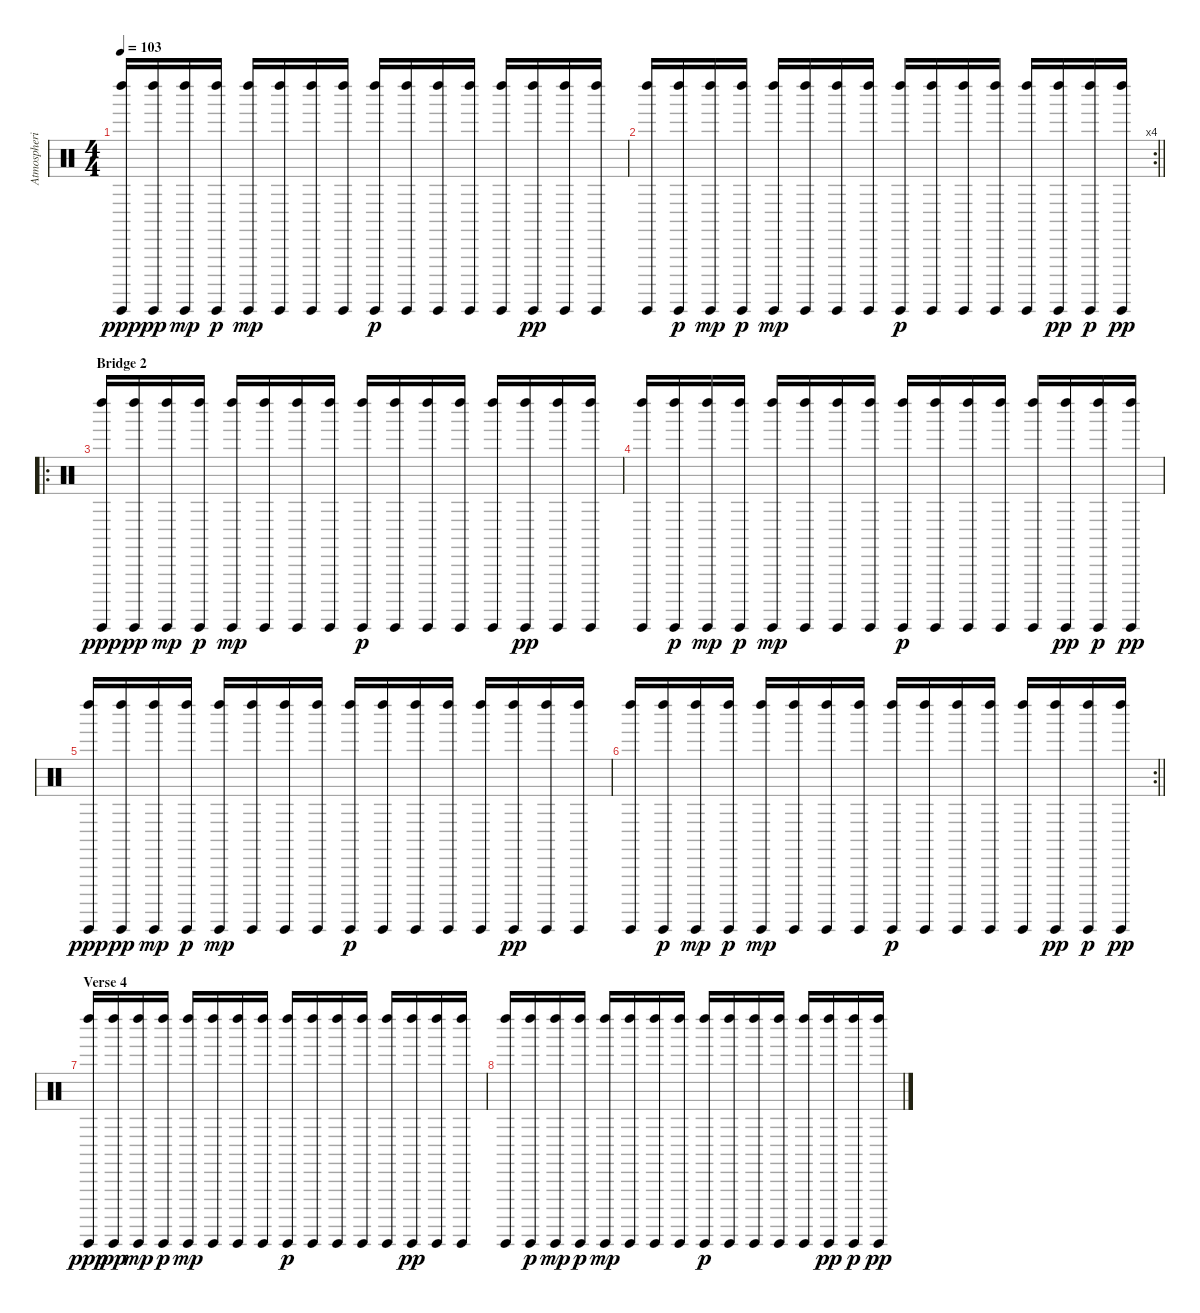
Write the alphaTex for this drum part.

\track ("Atmospheric Percussion" "Atmospheri") {instrument percussion}
\staff {score}
\articulation defaults
\ts (4 4)
\tempo 103
\clef neutral
\ks c
("Guiro (hit)" "Left Maraca (hit)").16{dy ppp} ("Guiro (hit)" "Left Maraca (hit)").16{dy pp} ("Guiro (hit)" "Left Maraca (hit)").16{dy mp} ("Guiro (hit)" "Left Maraca (hit)").16{dy p} ("Guiro (hit)" "Left Maraca (hit)").16{dy mp} ("Guiro (hit)" "Left Maraca (hit)").16 ("Guiro (hit)" "Left Maraca (hit)").16 ("Guiro (hit)" "Left Maraca (hit)").16 ("Guiro (hit)" "Left Maraca (hit)").16{dy p} ("Guiro (hit)" "Left Maraca (hit)").16 ("Guiro (hit)" "Left Maraca (hit)").16 ("Guiro (hit)" "Left Maraca (hit)").16 ("Guiro (hit)" "Left Maraca (hit)").16 ("Guiro (hit)" "Left Maraca (hit)").16{dy pp} ("Guiro (hit)" "Left Maraca (hit)").16 ("Guiro (hit)" "Left Maraca (hit)").16 |
\rc 4
\barLineRight lightlight
("Guiro (hit)" "Left Maraca (hit)").16 ("Guiro (hit)" "Left Maraca (hit)").16{dy p} ("Guiro (hit)" "Left Maraca (hit)").16{dy mp} ("Guiro (hit)" "Left Maraca (hit)").16{dy p} ("Guiro (hit)" "Left Maraca (hit)").16{dy mp} ("Guiro (hit)" "Left Maraca (hit)").16 ("Guiro (hit)" "Left Maraca (hit)").16 ("Guiro (hit)" "Left Maraca (hit)").16 ("Guiro (hit)" "Left Maraca (hit)").16{dy p} ("Guiro (hit)" "Left Maraca (hit)").16 ("Guiro (hit)" "Left Maraca (hit)").16 ("Guiro (hit)" "Left Maraca (hit)").16 ("Guiro (hit)" "Left Maraca (hit)").16 ("Guiro (hit)" "Left Maraca (hit)").16{dy pp} ("Guiro (hit)" "Left Maraca (hit)").16{dy p} ("Guiro (hit)" "Left Maraca (hit)").16{dy pp} |
\ro
\section ("" "Bridge 2")
("Guiro (hit)" "Left Maraca (hit)").16{dy ppp} ("Guiro (hit)" "Left Maraca (hit)").16{dy pp} ("Guiro (hit)" "Left Maraca (hit)").16{dy mp} ("Guiro (hit)" "Left Maraca (hit)").16{dy p} ("Guiro (hit)" "Left Maraca (hit)").16{dy mp} ("Guiro (hit)" "Left Maraca (hit)").16 ("Guiro (hit)" "Left Maraca (hit)").16 ("Guiro (hit)" "Left Maraca (hit)").16 ("Guiro (hit)" "Left Maraca (hit)").16{dy p} ("Guiro (hit)" "Left Maraca (hit)").16 ("Guiro (hit)" "Left Maraca (hit)").16 ("Guiro (hit)" "Left Maraca (hit)").16 ("Guiro (hit)" "Left Maraca (hit)").16 ("Guiro (hit)" "Left Maraca (hit)").16{dy pp} ("Guiro (hit)" "Left Maraca (hit)").16 ("Guiro (hit)" "Left Maraca (hit)").16 |
("Guiro (hit)" "Left Maraca (hit)").16 ("Guiro (hit)" "Left Maraca (hit)").16{dy p} ("Guiro (hit)" "Left Maraca (hit)").16{dy mp} ("Guiro (hit)" "Left Maraca (hit)").16{dy p} ("Guiro (hit)" "Left Maraca (hit)").16{dy mp} ("Guiro (hit)" "Left Maraca (hit)").16 ("Guiro (hit)" "Left Maraca (hit)").16 ("Guiro (hit)" "Left Maraca (hit)").16 ("Guiro (hit)" "Left Maraca (hit)").16{dy p} ("Guiro (hit)" "Left Maraca (hit)").16 ("Guiro (hit)" "Left Maraca (hit)").16 ("Guiro (hit)" "Left Maraca (hit)").16 ("Guiro (hit)" "Left Maraca (hit)").16 ("Guiro (hit)" "Left Maraca (hit)").16{dy pp} ("Guiro (hit)" "Left Maraca (hit)").16{dy p} ("Guiro (hit)" "Left Maraca (hit)").16{dy pp} |
("Guiro (hit)" "Left Maraca (hit)").16{dy ppp} ("Guiro (hit)" "Left Maraca (hit)").16{dy pp} ("Guiro (hit)" "Left Maraca (hit)").16{dy mp} ("Guiro (hit)" "Left Maraca (hit)").16{dy p} ("Guiro (hit)" "Left Maraca (hit)").16{dy mp} ("Guiro (hit)" "Left Maraca (hit)").16 ("Guiro (hit)" "Left Maraca (hit)").16 ("Guiro (hit)" "Left Maraca (hit)").16 ("Guiro (hit)" "Left Maraca (hit)").16{dy p} ("Guiro (hit)" "Left Maraca (hit)").16 ("Guiro (hit)" "Left Maraca (hit)").16 ("Guiro (hit)" "Left Maraca (hit)").16 ("Guiro (hit)" "Left Maraca (hit)").16 ("Guiro (hit)" "Left Maraca (hit)").16{dy pp} ("Guiro (hit)" "Left Maraca (hit)").16 ("Guiro (hit)" "Left Maraca (hit)").16 |
\rc 2
\barLineRight lightlight
("Guiro (hit)" "Left Maraca (hit)").16 ("Guiro (hit)" "Left Maraca (hit)").16{dy p} ("Guiro (hit)" "Left Maraca (hit)").16{dy mp} ("Guiro (hit)" "Left Maraca (hit)").16{dy p} ("Guiro (hit)" "Left Maraca (hit)").16{dy mp} ("Guiro (hit)" "Left Maraca (hit)").16 ("Guiro (hit)" "Left Maraca (hit)").16 ("Guiro (hit)" "Left Maraca (hit)").16 ("Guiro (hit)" "Left Maraca (hit)").16{dy p} ("Guiro (hit)" "Left Maraca (hit)").16 ("Guiro (hit)" "Left Maraca (hit)").16 ("Guiro (hit)" "Left Maraca (hit)").16 ("Guiro (hit)" "Left Maraca (hit)").16 ("Guiro (hit)" "Left Maraca (hit)").16{dy pp} ("Guiro (hit)" "Left Maraca (hit)").16{dy p} ("Guiro (hit)" "Left Maraca (hit)").16{dy pp} |
\section ("" "Verse 4")
("Guiro (hit)" "Left Maraca (hit)").16{dy ppp} ("Guiro (hit)" "Left Maraca (hit)").16{dy pp} ("Guiro (hit)" "Left Maraca (hit)").16{dy mp} ("Guiro (hit)" "Left Maraca (hit)").16{dy p} ("Guiro (hit)" "Left Maraca (hit)").16{dy mp} ("Guiro (hit)" "Left Maraca (hit)").16 ("Guiro (hit)" "Left Maraca (hit)").16 ("Guiro (hit)" "Left Maraca (hit)").16 ("Guiro (hit)" "Left Maraca (hit)").16{dy p} ("Guiro (hit)" "Left Maraca (hit)").16 ("Guiro (hit)" "Left Maraca (hit)").16 ("Guiro (hit)" "Left Maraca (hit)").16 ("Guiro (hit)" "Left Maraca (hit)").16 ("Guiro (hit)" "Left Maraca (hit)").16{dy pp} ("Guiro (hit)" "Left Maraca (hit)").16 ("Guiro (hit)" "Left Maraca (hit)").16 |
("Guiro (hit)" "Left Maraca (hit)").16 ("Guiro (hit)" "Left Maraca (hit)").16{dy p} ("Guiro (hit)" "Left Maraca (hit)").16{dy mp} ("Guiro (hit)" "Left Maraca (hit)").16{dy p} ("Guiro (hit)" "Left Maraca (hit)").16{dy mp} ("Guiro (hit)" "Left Maraca (hit)").16 ("Guiro (hit)" "Left Maraca (hit)").16 ("Guiro (hit)" "Left Maraca (hit)").16 ("Guiro (hit)" "Left Maraca (hit)").16{dy p} ("Guiro (hit)" "Left Maraca (hit)").16 ("Guiro (hit)" "Left Maraca (hit)").16 ("Guiro (hit)" "Left Maraca (hit)").16 ("Guiro (hit)" "Left Maraca (hit)").16 ("Guiro (hit)" "Left Maraca (hit)").16{dy pp} ("Guiro (hit)" "Left Maraca (hit)").16{dy p} ("Guiro (hit)" "Left Maraca (hit)").16{dy pp}
